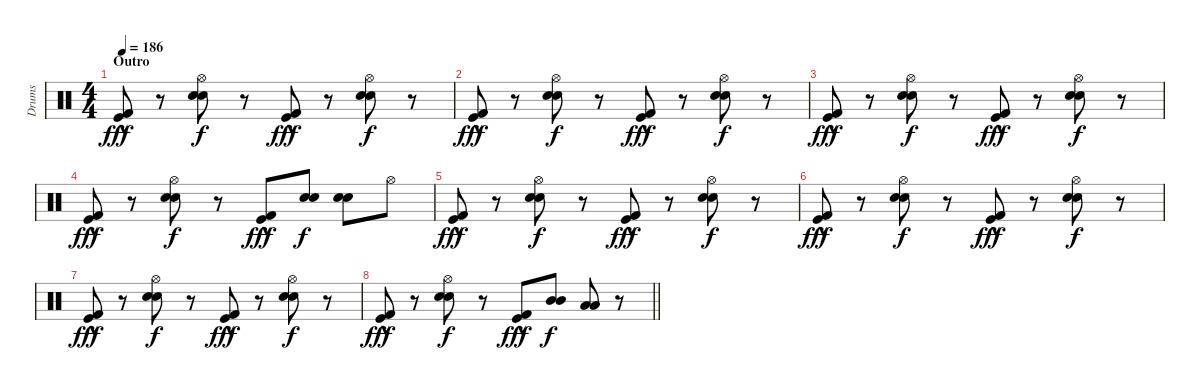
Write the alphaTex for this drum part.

\track ("Drums" "Drums") {instrument percussion}
\staff {score}
\articulation defaults
\ts (4 4)
\section ("" "Outro")
\tempo 186
\clef neutral
\ks c
("Kick (hit)"{hac} "Kick (hit) 2"{hac}).8{dy fff} r.8 ("Hi-Hat (open)" "Snare (hit) 2" "Snare (hit) 2").8{dy f} r.8 ("Kick (hit)"{hac} "Kick (hit) 2"{hac}).8{dy fff} r.8 ("Hi-Hat (open)" "Snare (hit) 2" "Snare (hit) 2").8{dy f} r.8 |
("Kick (hit)"{hac} "Kick (hit) 2"{hac}).8{dy fff} r.8 ("Hi-Hat (open)" "Snare (hit) 2" "Snare (hit) 2").8{dy f} r.8 ("Kick (hit)"{hac} "Kick (hit) 2"{hac}).8{dy fff} r.8 ("Hi-Hat (open)" "Snare (hit) 2" "Snare (hit) 2").8{dy f} r.8 |
("Kick (hit)"{hac} "Kick (hit) 2"{hac}).8{dy fff} r.8 ("Hi-Hat (open)" "Snare (hit) 2" "Snare (hit) 2").8{dy f} r.8 ("Kick (hit)"{hac} "Kick (hit) 2"{hac}).8{dy fff} r.8 ("Hi-Hat (open)" "Snare (hit) 2" "Snare (hit) 2").8{dy f} r.8 |
("Kick (hit)"{hac} "Kick (hit) 2"{hac}).8{dy fff} r.8 ("Hi-Hat (open)" "Snare (hit) 2" "Snare (hit) 2").8{dy f} r.8 ("Kick (hit)"{hac} "Kick (hit) 2"{hac}).8{dy fff} ("Snare (hit) 2" "Snare (hit) 2").8{dy f} ("Snare (hit) 2" "Snare (hit) 2").8 "Hi-Hat (open)".8 |
("Kick (hit)"{hac} "Kick (hit) 2"{hac}).8{dy fff} r.8 ("Hi-Hat (open)" "Snare (hit) 2" "Snare (hit) 2").8{dy f} r.8 ("Kick (hit)"{hac} "Kick (hit) 2"{hac}).8{dy fff} r.8 ("Hi-Hat (open)" "Snare (hit) 2" "Snare (hit) 2").8{dy f} r.8 |
("Kick (hit)"{hac} "Kick (hit) 2"{hac}).8{dy fff} r.8 ("Hi-Hat (open)" "Snare (hit) 2" "Snare (hit) 2").8{dy f} r.8 ("Kick (hit)"{hac} "Kick (hit) 2"{hac}).8{dy fff} r.8 ("Hi-Hat (open)" "Snare (hit) 2" "Snare (hit) 2").8{dy f} r.8 |
("Kick (hit)"{hac} "Kick (hit) 2"{hac}).8{dy fff} r.8 ("Hi-Hat (open)" "Snare (hit) 2" "Snare (hit) 2").8{dy f} r.8 ("Kick (hit)"{hac} "Kick (hit) 2"{hac}).8{dy fff} r.8 ("Hi-Hat (open)" "Snare (hit) 2" "Snare (hit) 2").8{dy f} r.8 |
\barLineRight lightlight
("Kick (hit)"{hac} "Kick (hit) 2"{hac}).8{dy fff} r.8 ("Hi-Hat (open)" "Snare (hit) 2" "Snare (hit) 2").8{dy f} r.8 ("Kick (hit)"{hac} "Kick (hit) 2"{hac}).8{dy fff} ("Mid Tom (hit)" "Mid Tom (hit)").8{dy f} ("Low Tom (hit)" "Low Tom (hit)").8 r.8
